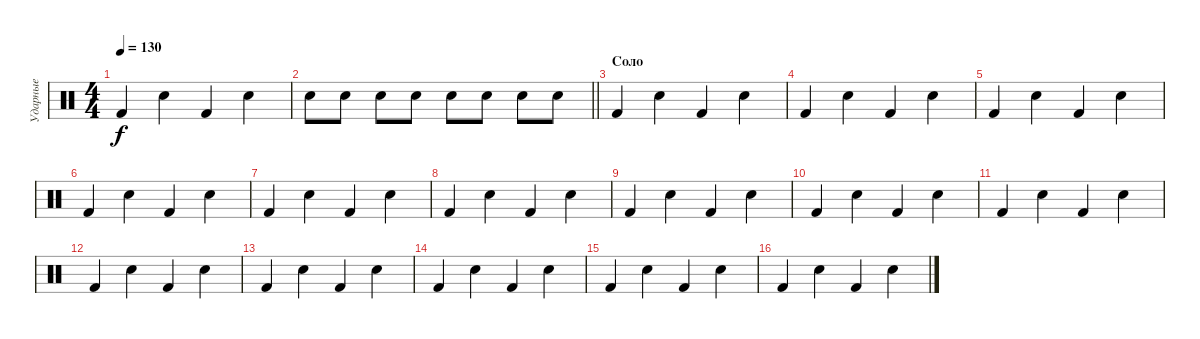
\track ("Ударные" "Ударные") {instrument percussion}
\staff {score}
\articulation defaults
\ts (4 4)
\tempo 130
\clef neutral
\ks c "Kick (hit) 2".4{dy f} "Electric Snare (hit)".4 "Kick (hit) 2".4 "Electric Snare (hit)".4
|
\barLineRight lightlight "Electric Snare (hit)".8 "Electric Snare (hit)".8 "Electric Snare (hit)".8 "Electric Snare (hit)".8 "Electric Snare (hit)".8 "Electric Snare (hit)".8 "Electric Snare (hit)".8 "Electric Snare (hit)".8
|
\section ("" "Соло")
"Kick (hit) 2".4 "Electric Snare (hit)".4 "Kick (hit) 2".4 "Electric Snare (hit)".4 |
"Kick (hit) 2".4 "Electric Snare (hit)".4 "Kick (hit) 2".4 "Electric Snare (hit)".4 |
"Kick (hit) 2".4 "Electric Snare (hit)".4 "Kick (hit) 2".4 "Electric Snare (hit)".4 |
"Kick (hit) 2".4 "Electric Snare (hit)".4 "Kick (hit) 2".4 "Electric Snare (hit)".4 |
"Kick (hit) 2".4 "Electric Snare (hit)".4 "Kick (hit) 2".4 "Electric Snare (hit)".4 |
"Kick (hit) 2".4 "Electric Snare (hit)".4 "Kick (hit) 2".4 "Electric Snare (hit)".4 |
"Kick (hit) 2".4 "Electric Snare (hit)".4 "Kick (hit) 2".4 "Electric Snare (hit)".4 |
"Kick (hit) 2".4 "Electric Snare (hit)".4 "Kick (hit) 2".4 "Electric Snare (hit)".4 |
"Kick (hit) 2".4 "Electric Snare (hit)".4 "Kick (hit) 2".4 "Electric Snare (hit)".4 |
"Kick (hit) 2".4 "Electric Snare (hit)".4 "Kick (hit) 2".4 "Electric Snare (hit)".4 |
"Kick (hit) 2".4 "Electric Snare (hit)".4 "Kick (hit) 2".4 "Electric Snare (hit)".4 |
"Kick (hit) 2".4 "Electric Snare (hit)".4 "Kick (hit) 2".4 "Electric Snare (hit)".4 |
"Kick (hit) 2".4 "Electric Snare (hit)".4 "Kick (hit) 2".4 "Electric Snare (hit)".4 |
"Kick (hit) 2".4 "Electric Snare (hit)".4 "Kick (hit) 2".4 "Electric Snare (hit)".4
